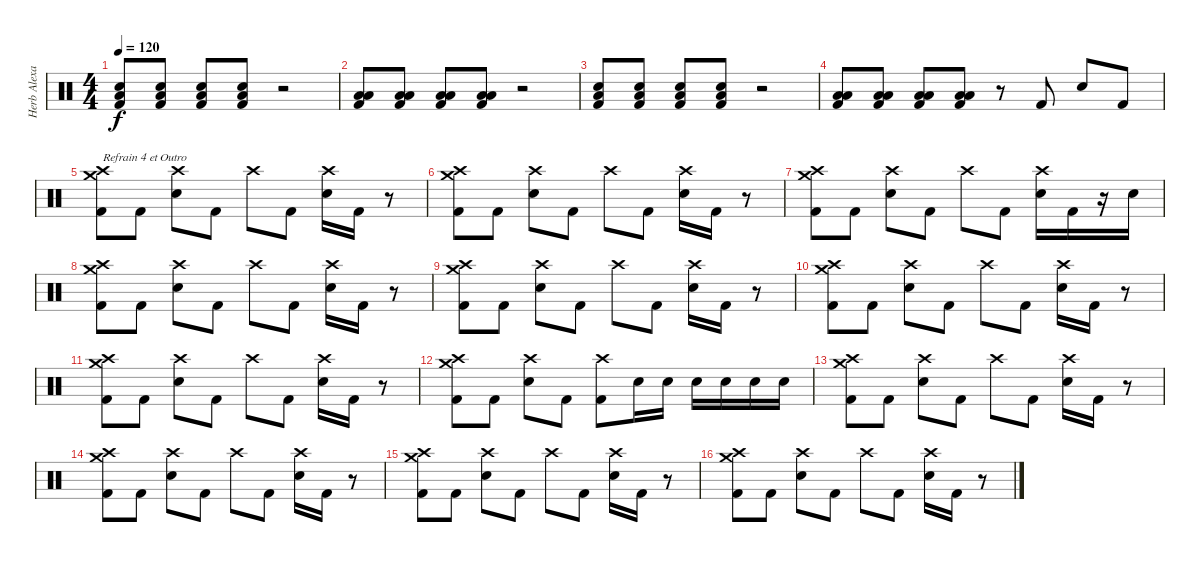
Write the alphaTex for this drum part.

\track ("Herb Alexander" "Herb Alexa") {instrument percussion}
\staff {score}
\articulation defaults
\ts (4 4)
\tempo 120
\clef neutral
\ks c
("Low Floor Tom (hit)" "Electric Snare (hit)" "Kick (hit) 2").8{dy f} ("Low Floor Tom (hit)" "Electric Snare (hit)" "Kick (hit) 2").8 ("Low Floor Tom (hit)" "Electric Snare (hit)" "Kick (hit) 2").8 ("Low Floor Tom (hit)" "Electric Snare (hit)" "Kick (hit) 2").8 r.2 |
("Low Tom (hit)" "Low Floor Tom (hit)" "Kick (hit) 2").8 ("Low Tom (hit)" "Low Floor Tom (hit)" "Kick (hit) 2").8 ("Low Tom (hit)" "Low Floor Tom (hit)" "Kick (hit) 2").8 ("Low Tom (hit)" "Low Floor Tom (hit)" "Kick (hit) 2").8 r.2 |
("Low Floor Tom (hit)" "Electric Snare (hit)" "Kick (hit) 2").8 ("Low Floor Tom (hit)" "Electric Snare (hit)" "Kick (hit) 2").8 ("Low Floor Tom (hit)" "Electric Snare (hit)" "Kick (hit) 2").8 ("Low Floor Tom (hit)" "Electric Snare (hit)" "Kick (hit) 2").8 r.2 |
("Low Tom (hit)" "Low Floor Tom (hit)" "Kick (hit) 2").8 ("Low Tom (hit)" "Low Floor Tom (hit)" "Kick (hit) 2").8 ("Low Tom (hit)" "Low Floor Tom (hit)" "Kick (hit) 2").8 ("Low Tom (hit)" "Low Floor Tom (hit)" "Kick (hit) 2").8 r.8 "Kick (hit) 2".8 "Electric Snare (hit)".8 "Kick (hit) 2".8 |
("Crash medium (hit)" "Crash high (hit)" "Kick (hit) 2").8{txt "Refrain 4 et Outro"} "Kick (hit) 2".8 ("Crash high (hit)" "Electric Snare (hit)").8 "Kick (hit) 2".8 "Crash high (hit)".8 "Kick (hit) 2".8 ("Crash high (hit)" "Electric Snare (hit)").16 "Kick (hit) 2".16 r.8 |
("Crash medium (hit)" "Crash high (hit)" "Kick (hit) 2").8 "Kick (hit) 2".8 ("Crash high (hit)" "Electric Snare (hit)").8 "Kick (hit) 2".8 "Crash high (hit)".8 "Kick (hit) 2".8 ("Crash high (hit)" "Electric Snare (hit)").16 "Kick (hit) 2".16 r.8 |
("Crash medium (hit)" "Crash high (hit)" "Kick (hit) 2").8 "Kick (hit) 2".8 ("Crash high (hit)" "Electric Snare (hit)").8 "Kick (hit) 2".8 "Crash high (hit)".8 "Kick (hit) 2".8 ("Crash high (hit)" "Electric Snare (hit)").16 "Kick (hit) 2".16 r.16 "Electric Snare (hit)".16 |
("Crash medium (hit)" "Crash high (hit)" "Kick (hit) 2").8 "Kick (hit) 2".8 ("Crash high (hit)" "Electric Snare (hit)").8 "Kick (hit) 2".8 "Crash high (hit)".8 "Kick (hit) 2".8 ("Crash high (hit)" "Electric Snare (hit)").16 "Kick (hit) 2".16 r.8 |
("Crash medium (hit)" "Crash high (hit)" "Kick (hit) 2").8 "Kick (hit) 2".8 ("Crash high (hit)" "Electric Snare (hit)").8 "Kick (hit) 2".8 "Crash high (hit)".8 "Kick (hit) 2".8 ("Crash high (hit)" "Electric Snare (hit)").16 "Kick (hit) 2".16 r.8 |
("Crash medium (hit)" "Crash high (hit)" "Kick (hit) 2").8 "Kick (hit) 2".8 ("Crash high (hit)" "Electric Snare (hit)").8 "Kick (hit) 2".8 "Crash high (hit)".8 "Kick (hit) 2".8 ("Crash high (hit)" "Electric Snare (hit)").16 "Kick (hit) 2".16 r.8 |
("Crash medium (hit)" "Crash high (hit)" "Kick (hit) 2").8 "Kick (hit) 2".8 ("Crash high (hit)" "Electric Snare (hit)").8 "Kick (hit) 2".8 "Crash high (hit)".8 "Kick (hit) 2".8 ("Crash high (hit)" "Electric Snare (hit)").16 "Kick (hit) 2".16 r.8 |
("Crash medium (hit)" "Crash high (hit)" "Kick (hit) 2").8 "Kick (hit) 2".8 ("Crash high (hit)" "Electric Snare (hit)").8 "Kick (hit) 2".8 ("Crash high (hit)" "Kick (hit) 2").8 "Electric Snare (hit)".16 "Electric Snare (hit)".16 "Electric Snare (hit)".16 "Electric Snare (hit)".16 "Electric Snare (hit)".16 "Electric Snare (hit)".16 |
("Crash medium (hit)" "Crash high (hit)" "Kick (hit) 2").8 "Kick (hit) 2".8 ("Crash high (hit)" "Electric Snare (hit)").8 "Kick (hit) 2".8 "Crash high (hit)".8 "Kick (hit) 2".8 ("Crash high (hit)" "Electric Snare (hit)").16 "Kick (hit) 2".16 r.8 |
("Crash medium (hit)" "Crash high (hit)" "Kick (hit) 2").8 "Kick (hit) 2".8 ("Crash high (hit)" "Electric Snare (hit)").8 "Kick (hit) 2".8 "Crash high (hit)".8 "Kick (hit) 2".8 ("Crash high (hit)" "Electric Snare (hit)").16 "Kick (hit) 2".16 r.8 |
("Crash medium (hit)" "Crash high (hit)" "Kick (hit) 2").8 "Kick (hit) 2".8 ("Crash high (hit)" "Electric Snare (hit)").8 "Kick (hit) 2".8 "Crash high (hit)".8 "Kick (hit) 2".8 ("Crash high (hit)" "Electric Snare (hit)").16 "Kick (hit) 2".16 r.8 |
("Crash medium (hit)" "Crash high (hit)" "Kick (hit) 2").8 "Kick (hit) 2".8 ("Crash high (hit)" "Electric Snare (hit)").8 "Kick (hit) 2".8 "Crash high (hit)".8 "Kick (hit) 2".8 ("Crash high (hit)" "Electric Snare (hit)").16 "Kick (hit) 2".16 r.8
